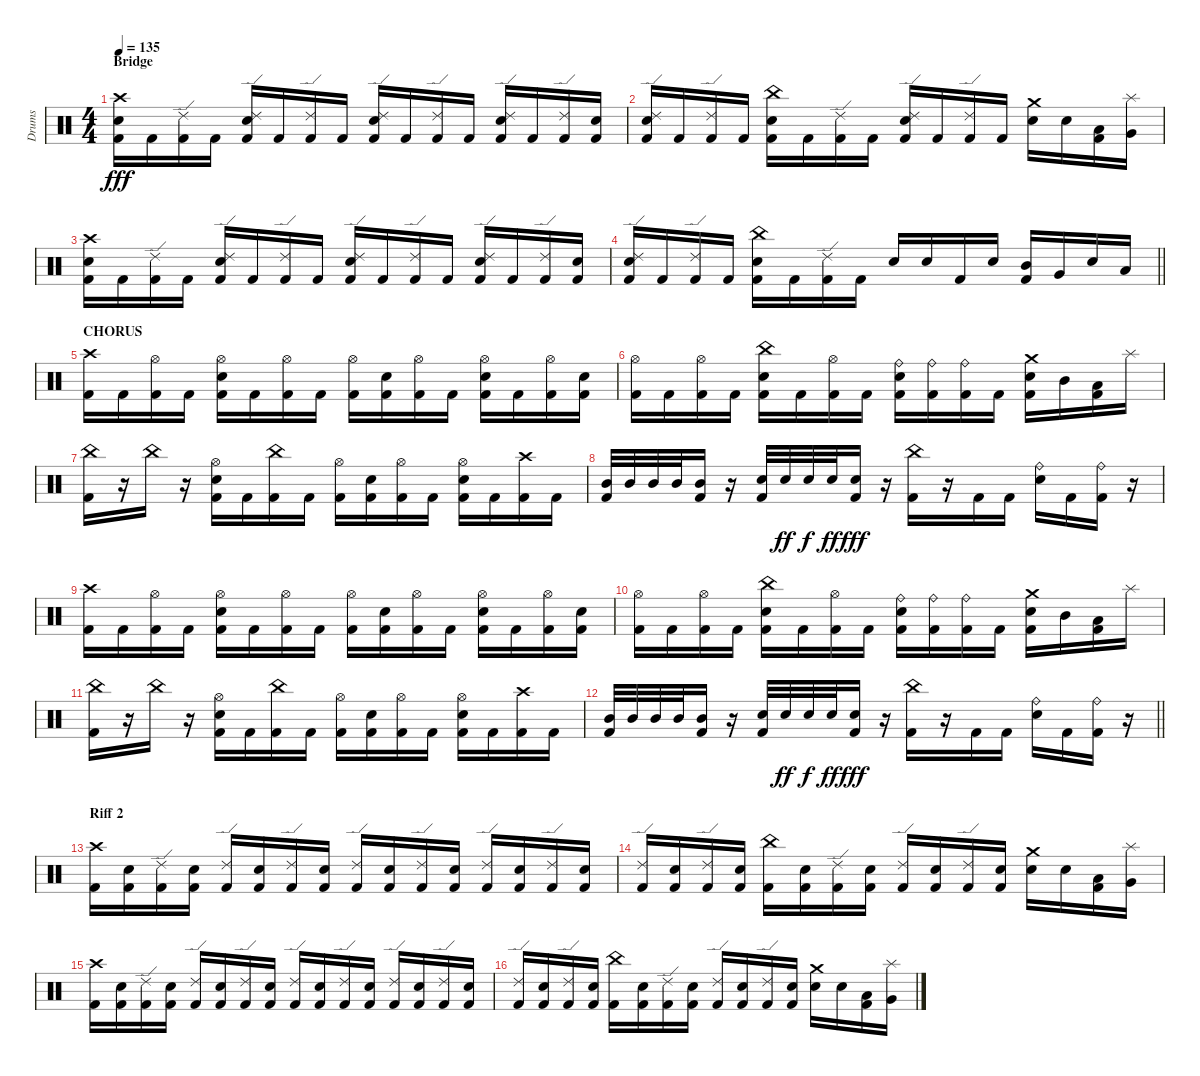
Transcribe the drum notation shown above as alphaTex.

\track ("Drums" "Drums") {instrument percussion}
\staff {score}
\articulation defaults
\ts (4 4)
\section ("" "Bridge")
\tempo 135
\clef neutral
\ks c
("Kick (hit) 2" "Snare (hit) 2" "Crash high (hit)").16{dy fff} "Kick (hit) 2".16 ("Kick (hit) 2" "Ride (edge) 2").16 "Kick (hit) 2".16 ("Kick (hit) 2" "Snare (hit) 2" "Ride (edge) 2").16 "Kick (hit) 2".16 ("Kick (hit) 2" "Ride (edge) 2").16 "Kick (hit) 2".16 ("Kick (hit) 2" "Snare (hit) 2" "Ride (edge) 2").16 "Kick (hit) 2".16 ("Kick (hit) 2" "Ride (edge) 2").16 "Kick (hit) 2".16 ("Kick (hit) 2" "Snare (hit) 2" "Ride (edge) 2").16 "Kick (hit) 2".16 ("Kick (hit) 2" "Ride (edge) 2").16 ("Kick (hit) 2" "Snare (hit) 2").16 |
("Kick (hit) 2" "Snare (hit) 2" "Ride (edge) 2").16 "Kick (hit) 2".16 ("Kick (hit) 2" "Ride (edge) 2").16 "Kick (hit) 2".16 ("Kick (hit) 2" "Snare (hit) 2" "China (hit)").16 "Kick (hit) 2".16 ("Kick (hit) 2" "Ride (edge) 2").16 "Kick (hit) 2".16 ("Kick (hit) 2" "Snare (hit) 2" "Ride (edge) 2").16 "Kick (hit) 2".16 ("Kick (hit) 2" "Ride (edge) 2").16 "Kick (hit) 2".16 ("Snare (hit) 2" "Crash medium (hit)").16 "Snare (hit) 2".16 ("Kick (hit) 2" "Low Tom (hit)").16 ("Very Low Tom (hit)" "Splash (hit)").16 |
("Kick (hit) 2" "Snare (hit) 2" "Crash high (hit)").16 "Kick (hit) 2".16 ("Kick (hit) 2" "Ride (edge) 2").16 "Kick (hit) 2".16 ("Kick (hit) 2" "Snare (hit) 2" "Ride (edge) 2").16 "Kick (hit) 2".16 ("Kick (hit) 2" "Ride (edge) 2").16 "Kick (hit) 2".16 ("Kick (hit) 2" "Snare (hit) 2" "Ride (edge) 2").16 "Kick (hit) 2".16 ("Kick (hit) 2" "Ride (edge) 2").16 "Kick (hit) 2".16 ("Kick (hit) 2" "Snare (hit) 2" "Ride (edge) 2").16 "Kick (hit) 2".16 ("Kick (hit) 2" "Ride (edge) 2").16 ("Kick (hit) 2" "Snare (hit) 2").16 |
\barLineRight lightlight
("Kick (hit) 2" "Snare (hit) 2" "Ride (edge) 2").16 "Kick (hit) 2".16 ("Kick (hit) 2" "Ride (edge) 2").16 "Kick (hit) 2".16 ("Kick (hit) 2" "Snare (hit) 2" "China (hit)").16 "Kick (hit) 2".16 ("Kick (hit) 2" "Ride (edge) 2").16 "Kick (hit) 2".16 "Snare (hit) 2".16 "Snare (hit) 2".16 "Kick (hit) 2".16 "Snare (hit) 2".16 ("Kick (hit) 2" "Mid Tom (hit)").16 "Very Low Tom (hit)".16 "Snare (hit) 2".16 "Low Floor Tom (hit)".16 |
\section ("" "CHORUS")
("Kick (hit) 2" "Crash high (hit)").16 "Kick (hit) 2".16 ("Kick (hit) 2" "Hi-Hat (open)").16 "Kick (hit) 2".16 ("Kick (hit) 2" "Snare (hit) 2" "Hi-Hat (open)").16 "Kick (hit) 2".16 ("Kick (hit) 2" "Hi-Hat (open)").16 "Kick (hit) 2".16 ("Kick (hit) 2" "Hi-Hat (open)").16 ("Kick (hit) 2" "Snare (hit) 2").16 ("Kick (hit) 2" "Hi-Hat (open)").16 "Kick (hit) 2".16 ("Kick (hit) 2" "Snare (hit) 2" "Hi-Hat (open)").16 "Kick (hit) 2".16 ("Kick (hit) 2" "Hi-Hat (open)").16 ("Kick (hit) 2" "Snare (hit) 2").16 |
("Kick (hit) 2" "Hi-Hat (open)").16 "Kick (hit) 2".16 ("Kick (hit) 2" "Hi-Hat (open)").16 "Kick (hit) 2".16 ("Kick (hit) 2" "Snare (hit) 2" "China (hit)").16 "Kick (hit) 2".16 ("Kick (hit) 2" "Hi-Hat (open)").16 "Kick (hit) 2".16 ("Kick (hit) 2" "Snare (hit) 2" "Ride (bell)").16 ("Kick (hit) 2" "Ride (bell)").16 ("Kick (hit) 2" "Ride (bell)").16 "Kick (hit) 2".16 ("Kick (hit) 2" "Snare (hit) 2" "Crash medium (hit)").16 "Mid Tom (hit)".16 ("Kick (hit) 2" "Low Tom (hit)").16 "Splash (hit)".16 |
("Kick (hit) 2" "China (hit)").16 r.16 "China (hit)".16 r.16 ("Kick (hit) 2" "Snare (hit) 2" "Hi-Hat (open)").16 "Kick (hit) 2".16 ("Kick (hit) 2" "China (hit)").16 "Kick (hit) 2".16 ("Kick (hit) 2" "Hi-Hat (open)").16 ("Kick (hit) 2" "Snare (hit) 2").16 ("Kick (hit) 2" "Hi-Hat (open)").16 "Kick (hit) 2".16 ("Kick (hit) 2" "Snare (hit) 2" "Hi-Hat (open)").16 "Kick (hit) 2".16 ("Kick (hit) 2" "Crash high (hit)").16 "Kick (hit) 2".16 |
("Kick (hit) 2" "Mid Tom (hit)").32 "Mid Tom (hit)".32 "Mid Tom (hit)".32 "Mid Tom (hit)".32 ("Kick (hit) 2" "Mid Tom (hit)").16 r.16 ("Kick (hit) 2" "Snare (hit) 2").32 "Snare (hit) 2".32{dy ff} "Snare (hit) 2".32{dy f} "Snare (hit) 2".32{dy ff} ("Kick (hit) 2" "Snare (hit) 2").16{dy fff} r.16 ("Kick (hit) 2" "China (hit)").16 r.16 "Kick (hit) 2".16 "Kick (hit) 2".16 ("Snare (hit) 2" "Ride (bell)").16 "Kick (hit) 2".16 ("Kick (hit) 2" "Ride (bell)").16 r.16 |
("Kick (hit) 2" "Crash high (hit)").16 "Kick (hit) 2".16 ("Kick (hit) 2" "Hi-Hat (open)").16 "Kick (hit) 2".16 ("Kick (hit) 2" "Snare (hit) 2" "Hi-Hat (open)").16 "Kick (hit) 2".16 ("Kick (hit) 2" "Hi-Hat (open)").16 "Kick (hit) 2".16 ("Kick (hit) 2" "Hi-Hat (open)").16 ("Kick (hit) 2" "Snare (hit) 2").16 ("Kick (hit) 2" "Hi-Hat (open)").16 "Kick (hit) 2".16 ("Kick (hit) 2" "Snare (hit) 2" "Hi-Hat (open)").16 "Kick (hit) 2".16 ("Kick (hit) 2" "Hi-Hat (open)").16 ("Kick (hit) 2" "Snare (hit) 2").16 |
("Kick (hit) 2" "Hi-Hat (open)").16 "Kick (hit) 2".16 ("Kick (hit) 2" "Hi-Hat (open)").16 "Kick (hit) 2".16 ("Kick (hit) 2" "Snare (hit) 2" "China (hit)").16 "Kick (hit) 2".16 ("Kick (hit) 2" "Hi-Hat (open)").16 "Kick (hit) 2".16 ("Kick (hit) 2" "Snare (hit) 2" "Ride (bell)").16 ("Kick (hit) 2" "Ride (bell)").16 ("Kick (hit) 2" "Ride (bell)").16 "Kick (hit) 2".16 ("Kick (hit) 2" "Snare (hit) 2" "Crash medium (hit)").16 "Mid Tom (hit)".16 ("Kick (hit) 2" "Low Tom (hit)").16 "Splash (hit)".16 |
("Kick (hit) 2" "China (hit)").16 r.16 "China (hit)".16 r.16 ("Kick (hit) 2" "Snare (hit) 2" "Hi-Hat (open)").16 "Kick (hit) 2".16 ("Kick (hit) 2" "China (hit)").16 "Kick (hit) 2".16 ("Kick (hit) 2" "Hi-Hat (open)").16 ("Kick (hit) 2" "Snare (hit) 2").16 ("Kick (hit) 2" "Hi-Hat (open)").16 "Kick (hit) 2".16 ("Kick (hit) 2" "Snare (hit) 2" "Hi-Hat (open)").16 "Kick (hit) 2".16 ("Kick (hit) 2" "Crash high (hit)").16 "Kick (hit) 2".16 |
\barLineRight lightlight
("Kick (hit) 2" "Mid Tom (hit)").32 "Mid Tom (hit)".32 "Mid Tom (hit)".32 "Mid Tom (hit)".32 ("Kick (hit) 2" "Mid Tom (hit)").16 r.16 ("Kick (hit) 2" "Snare (hit) 2").32 "Snare (hit) 2".32{dy ff} "Snare (hit) 2".32{dy f} "Snare (hit) 2".32{dy ff} ("Kick (hit) 2" "Snare (hit) 2").16{dy fff} r.16 ("Kick (hit) 2" "China (hit)").16 r.16 "Kick (hit) 2".16 "Kick (hit) 2".16 ("Snare (hit) 2" "Ride (bell)").16 "Kick (hit) 2".16 ("Kick (hit) 2" "Ride (bell)").16 r.16 |
\section ("" "Riff 2")
("Kick (hit) 2" "Crash high (hit)").16 ("Kick (hit) 2" "Snare (hit) 2").16 ("Kick (hit) 2" "Ride (edge) 2").16 ("Kick (hit) 2" "Snare (hit) 2").16 ("Kick (hit) 2" "Ride (edge) 2").16 ("Kick (hit) 2" "Snare (hit) 2").16 ("Kick (hit) 2" "Ride (edge) 2").16 ("Kick (hit) 2" "Snare (hit) 2").16 ("Kick (hit) 2" "Ride (edge) 2").16 ("Kick (hit) 2" "Snare (hit) 2").16 ("Kick (hit) 2" "Ride (edge) 2").16 ("Kick (hit) 2" "Snare (hit) 2").16 ("Kick (hit) 2" "Ride (edge) 2").16 ("Kick (hit) 2" "Snare (hit) 2").16 ("Kick (hit) 2" "Ride (edge) 2").16 ("Kick (hit) 2" "Snare (hit) 2").16 |
("Kick (hit) 2" "Ride (edge) 2").16 ("Kick (hit) 2" "Snare (hit) 2").16 ("Kick (hit) 2" "Ride (edge) 2").16 ("Kick (hit) 2" "Snare (hit) 2").16 ("Kick (hit) 2" "China (hit)").16 ("Kick (hit) 2" "Snare (hit) 2").16 ("Kick (hit) 2" "Ride (edge) 2").16 ("Kick (hit) 2" "Snare (hit) 2").16 ("Kick (hit) 2" "Ride (edge) 2").16 ("Kick (hit) 2" "Snare (hit) 2").16 ("Kick (hit) 2" "Ride (edge) 2").16 ("Kick (hit) 2" "Snare (hit) 2").16 ("Snare (hit) 2" "Crash medium (hit)").16 "Snare (hit) 2".16 ("Kick (hit) 2" "Low Tom (hit)").16 ("Very Low Tom (hit)" "Splash (hit)").16 |
("Kick (hit) 2" "Crash high (hit)").16 ("Kick (hit) 2" "Snare (hit) 2").16 ("Kick (hit) 2" "Ride (edge) 2").16 ("Kick (hit) 2" "Snare (hit) 2").16 ("Kick (hit) 2" "Ride (edge) 2").16 ("Kick (hit) 2" "Snare (hit) 2").16 ("Kick (hit) 2" "Ride (edge) 2").16 ("Kick (hit) 2" "Snare (hit) 2").16 ("Kick (hit) 2" "Ride (edge) 2").16 ("Kick (hit) 2" "Snare (hit) 2").16 ("Kick (hit) 2" "Ride (edge) 2").16 ("Kick (hit) 2" "Snare (hit) 2").16 ("Kick (hit) 2" "Ride (edge) 2").16 ("Kick (hit) 2" "Snare (hit) 2").16 ("Kick (hit) 2" "Ride (edge) 2").16 ("Kick (hit) 2" "Snare (hit) 2").16 |
("Kick (hit) 2" "Ride (edge) 2").16 ("Kick (hit) 2" "Snare (hit) 2").16 ("Kick (hit) 2" "Ride (edge) 2").16 ("Kick (hit) 2" "Snare (hit) 2").16 ("Kick (hit) 2" "China (hit)").16 ("Kick (hit) 2" "Snare (hit) 2").16 ("Kick (hit) 2" "Ride (edge) 2").16 ("Kick (hit) 2" "Snare (hit) 2").16 ("Kick (hit) 2" "Ride (edge) 2").16 ("Kick (hit) 2" "Snare (hit) 2").16 ("Kick (hit) 2" "Ride (edge) 2").16 ("Kick (hit) 2" "Snare (hit) 2").16 ("Snare (hit) 2" "Crash medium (hit)").16 "Snare (hit) 2".16 ("Kick (hit) 2" "Low Tom (hit)").16 ("Very Low Tom (hit)" "Splash (hit)").16
